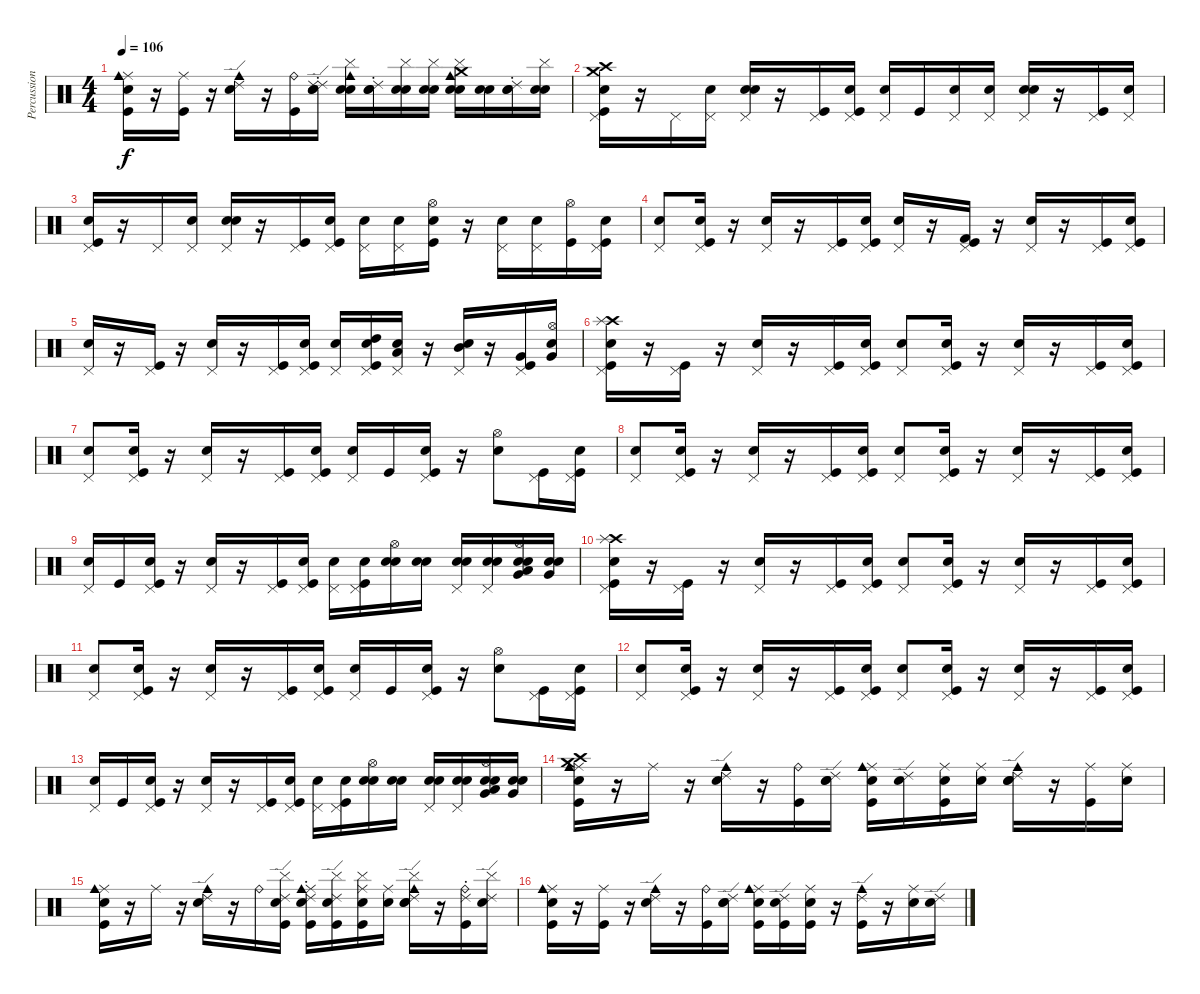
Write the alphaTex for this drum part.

\track ("Percussions (Zaac)" "Percussion") {instrument percussion}
\staff {score}
\articulation defaults
\ts (4 4)
\tempo 106
\clef neutral
\ks c
("Snare (hit)" "Kick (hit)" "Ride (middle)" "Cowbell medium (hit)").16{dy f} r.16 ("Kick (hit)" "Ride (middle)").16 r.16 ("Electric Snare (hit)" "Cowbell medium (hit)" "Ride (edge) 2").16 r.16 ("Kick (hit)" "Ride (bell)").16 ("Snare (hit)" "Ride (choke) 2" "Electric Snare (hit)" "Ride (edge) 2").16 ("Snare (hit)" "Cymbal (hit)" "Electric Snare (hit)" "Cowbell medium (hit)").16 ("Snare (hit)" "Ride (choke) 2" "Electric Snare (hit)").16 ("Snare (hit)" "Cymbal (hit)" "Electric Snare (hit)").16 ("Snare (hit)" "Cymbal (hit)" "Electric Snare (hit)").16 ("Snare (hit)" "Cymbal (hit)" "Electric Snare (hit)" "Cowbell medium (hit)" "Crash medium (hit)").16 ("Snare (hit)" "Electric Snare (hit)").16 ("Snare (hit)" "Ride (choke) 2" "Electric Snare (hit)").16 ("Snare (hit)" "Cymbal (hit)" "Electric Snare (hit)").16 |
("Snare (hit)" "Kick (hit)" "Pedal Hi-Hat (hit)" "Crash high (hit)" "Crash medium (hit)").16 r.16 "Pedal Hi-Hat (hit)".16 ("Snare (hit)" "Pedal Hi-Hat (hit)").16 ("Snare (hit)" "Electric Snare (hit)" "Pedal Hi-Hat (hit)").16 r.16 ("Kick (hit)" "Pedal Hi-Hat (hit)").16 ("Snare (hit)" "Kick (hit)" "Pedal Hi-Hat (hit)").16 ("Snare (hit)" "Pedal Hi-Hat (hit)").16 "Kick (hit)".16 ("Snare (hit)" "Pedal Hi-Hat (hit)").16 ("Snare (hit)" "Pedal Hi-Hat (hit)").16 ("Snare (hit)" "Electric Snare (hit)" "Pedal Hi-Hat (hit)").16 r.16 ("Kick (hit)" "Pedal Hi-Hat (hit)").16 ("Snare (hit)" "Pedal Hi-Hat (hit)").16 |
("Snare (hit)" "Kick (hit)" "Pedal Hi-Hat (hit)").16 r.16 "Pedal Hi-Hat (hit)".16 ("Snare (hit)" "Pedal Hi-Hat (hit)").16 ("Snare (hit)" "Electric Snare (hit)" "Pedal Hi-Hat (hit)").16 r.16 ("Kick (hit)" "Pedal Hi-Hat (hit)").16 ("Snare (hit)" "Kick (hit)" "Pedal Hi-Hat (hit)").16 ("Snare (hit)" "Pedal Hi-Hat (hit)").16 ("Snare (hit)" "Pedal Hi-Hat (hit)").16 ("Snare (hit)" "Kick (hit)" "Hi-Hat (open)").16 r.16 ("Electric Snare (hit)" "Pedal Hi-Hat (hit)").16 ("Snare (hit)" "Pedal Hi-Hat (hit)").16 ("Kick (hit)" "Hi-Hat (open)").16 ("Snare (hit)" "Kick (hit)" "Pedal Hi-Hat (hit)").16 |
("Snare (hit)" "Pedal Hi-Hat (hit)").8 ("Snare (hit)" "Kick (hit)" "Pedal Hi-Hat (hit)").16 r.16 ("Electric Snare (hit)" "Pedal Hi-Hat (hit)").16 r.16 ("Kick (hit)" "Pedal Hi-Hat (hit)").16 ("Snare (hit)" "Kick (hit)" "Pedal Hi-Hat (hit)").16 ("Snare (hit)" "Pedal Hi-Hat (hit)").16 r.16 ("Kick (hit)" "Kick (hit) 2" "Pedal Hi-Hat (hit)").16 r.16 ("Electric Snare (hit)" "Pedal Hi-Hat (hit)").16 r.16 ("Kick (hit)" "Pedal Hi-Hat (hit)").16 ("Snare (hit)" "Kick (hit)" "Pedal Hi-Hat (hit)").16 |
("Snare (hit)" "Pedal Hi-Hat (hit)").16 r.16 ("Kick (hit)" "Pedal Hi-Hat (hit)").16 r.16 ("Electric Snare (hit)" "Pedal Hi-Hat (hit)").16 r.16 ("Kick (hit)" "Pedal Hi-Hat (hit)").16 ("Snare (hit)" "Kick (hit)" "Pedal Hi-Hat (hit)").16 ("Snare (hit)" "Pedal Hi-Hat (hit)").16 ("Snare (hit)" "Kick (hit)" "Pedal Hi-Hat (hit)" "High Tom (hit)").16 ("Snare (hit)" "Pedal Hi-Hat (hit)" "Low Tom (hit)").16 r.16 ("Electric Snare (hit)" "Pedal Hi-Hat (hit)" "Mid Tom (hit)").16 r.16 ("Kick (hit)" "Very Low Tom (hit)" "Pedal Hi-Hat (hit)").16 ("Snare (hit)" "Very Low Tom (hit)" "Hi-Hat (open)").16 |
("Snare (hit)" "Kick (hit)" "Pedal Hi-Hat (hit)" "Crash high (hit)" "Splash (hit)").16 r.16 ("Kick (hit)" "Pedal Hi-Hat (hit)").16 r.16 ("Electric Snare (hit)" "Pedal Hi-Hat (hit)").16 r.16 ("Kick (hit)" "Pedal Hi-Hat (hit)").16 ("Snare (hit)" "Kick (hit)" "Pedal Hi-Hat (hit)").16 ("Snare (hit)" "Pedal Hi-Hat (hit)").8 ("Snare (hit)" "Kick (hit)" "Pedal Hi-Hat (hit)").16 r.16 ("Electric Snare (hit)" "Pedal Hi-Hat (hit)").16 r.16 ("Kick (hit)" "Pedal Hi-Hat (hit)").16 ("Snare (hit)" "Kick (hit)" "Pedal Hi-Hat (hit)").16 |
("Snare (hit)" "Pedal Hi-Hat (hit)").8 ("Snare (hit)" "Kick (hit)" "Pedal Hi-Hat (hit)").16 r.16 ("Electric Snare (hit)" "Pedal Hi-Hat (hit)").16 r.16 ("Kick (hit)" "Pedal Hi-Hat (hit)").16 ("Snare (hit)" "Kick (hit)" "Pedal Hi-Hat (hit)").16 ("Snare (hit)" "Pedal Hi-Hat (hit)").16 "Kick (hit)".16 ("Snare (hit)" "Kick (hit)" "Pedal Hi-Hat (hit)").16 r.16 ("Electric Snare (hit)" "Hi-Hat (open)").8 ("Kick (hit)" "Pedal Hi-Hat (hit)").16 ("Snare (hit)" "Kick (hit)" "Pedal Hi-Hat (hit)").16 |
("Snare (hit)" "Pedal Hi-Hat (hit)").8 ("Snare (hit)" "Kick (hit)" "Pedal Hi-Hat (hit)").16 r.16 ("Electric Snare (hit)" "Pedal Hi-Hat (hit)").16 r.16 ("Kick (hit)" "Pedal Hi-Hat (hit)").16 ("Snare (hit)" "Kick (hit)" "Pedal Hi-Hat (hit)").16 ("Snare (hit)" "Pedal Hi-Hat (hit)").8 ("Snare (hit)" "Kick (hit)" "Pedal Hi-Hat (hit)").16 r.16 ("Electric Snare (hit)" "Pedal Hi-Hat (hit)").16 r.16 ("Kick (hit)" "Pedal Hi-Hat (hit)").16 ("Snare (hit)" "Kick (hit)" "Pedal Hi-Hat (hit)").16 |
("Snare (hit)" "Pedal Hi-Hat (hit)").16 "Kick (hit)".16 ("Snare (hit)" "Kick (hit)" "Pedal Hi-Hat (hit)").16 r.16 ("Electric Snare (hit)" "Pedal Hi-Hat (hit)").16 r.16 ("Kick (hit)" "Pedal Hi-Hat (hit)").16 ("Snare (hit)" "Kick (hit)" "Pedal Hi-Hat (hit)").16 ("Snare (hit)" "Pedal Hi-Hat (hit)").16 ("Snare (hit)" "Kick (hit)" "Pedal Hi-Hat (hit)").16 ("Snare (hit)" "Electric Snare (hit)" "Hi-Hat (open)").16 ("Snare (hit)" "Electric Snare (hit)").16 ("Snare (hit)" "Electric Snare (hit)" "Pedal Hi-Hat (hit)").16 ("Snare (hit)" "Electric Snare (hit)" "Pedal Hi-Hat (hit)").16 ("Snare (hit)" "Electric Snare (hit)" "Very Low Tom (hit)" "Low Tom (hit)" "Hi-Hat (open)").16 ("Snare (hit)" "Electric Snare (hit)" "Very Low Tom (hit)").16 |
("Snare (hit)" "Kick (hit)" "Pedal Hi-Hat (hit)" "Crash high (hit)" "Splash (hit)").16 r.16 ("Kick (hit)" "Pedal Hi-Hat (hit)").16 r.16 ("Electric Snare (hit)" "Pedal Hi-Hat (hit)").16 r.16 ("Kick (hit)" "Pedal Hi-Hat (hit)").16 ("Snare (hit)" "Kick (hit)" "Pedal Hi-Hat (hit)").16 ("Snare (hit)" "Pedal Hi-Hat (hit)").8 ("Snare (hit)" "Kick (hit)" "Pedal Hi-Hat (hit)").16 r.16 ("Electric Snare (hit)" "Pedal Hi-Hat (hit)").16 r.16 ("Kick (hit)" "Pedal Hi-Hat (hit)").16 ("Snare (hit)" "Kick (hit)" "Pedal Hi-Hat (hit)").16 |
("Snare (hit)" "Pedal Hi-Hat (hit)").8 ("Snare (hit)" "Kick (hit)" "Pedal Hi-Hat (hit)").16 r.16 ("Electric Snare (hit)" "Pedal Hi-Hat (hit)").16 r.16 ("Kick (hit)" "Pedal Hi-Hat (hit)").16 ("Snare (hit)" "Kick (hit)" "Pedal Hi-Hat (hit)").16 ("Snare (hit)" "Pedal Hi-Hat (hit)").16 "Kick (hit)".16 ("Snare (hit)" "Kick (hit)" "Pedal Hi-Hat (hit)").16 r.16 ("Electric Snare (hit)" "Hi-Hat (open)").8 ("Kick (hit)" "Pedal Hi-Hat (hit)").16 ("Snare (hit)" "Kick (hit)" "Pedal Hi-Hat (hit)").16 |
("Snare (hit)" "Pedal Hi-Hat (hit)").8 ("Snare (hit)" "Kick (hit)" "Pedal Hi-Hat (hit)").16 r.16 ("Electric Snare (hit)" "Pedal Hi-Hat (hit)").16 r.16 ("Kick (hit)" "Pedal Hi-Hat (hit)").16 ("Snare (hit)" "Kick (hit)" "Pedal Hi-Hat (hit)").16 ("Snare (hit)" "Pedal Hi-Hat (hit)").8 ("Snare (hit)" "Kick (hit)" "Pedal Hi-Hat (hit)").16 r.16 ("Electric Snare (hit)" "Pedal Hi-Hat (hit)").16 r.16 ("Kick (hit)" "Pedal Hi-Hat (hit)").16 ("Snare (hit)" "Kick (hit)" "Pedal Hi-Hat (hit)").16 |
("Snare (hit)" "Pedal Hi-Hat (hit)").16 "Kick (hit)".16 ("Snare (hit)" "Kick (hit)" "Pedal Hi-Hat (hit)").16 r.16 ("Electric Snare (hit)" "Pedal Hi-Hat (hit)").16 r.16 ("Kick (hit)" "Pedal Hi-Hat (hit)").16 ("Snare (hit)" "Kick (hit)" "Pedal Hi-Hat (hit)").16 ("Snare (hit)" "Pedal Hi-Hat (hit)").16 ("Snare (hit)" "Kick (hit)" "Pedal Hi-Hat (hit)").16 ("Snare (hit)" "Electric Snare (hit)" "Hi-Hat (open)").16 ("Snare (hit)" "Electric Snare (hit)").16 ("Snare (hit)" "Electric Snare (hit)" "Pedal Hi-Hat (hit)").16 ("Snare (hit)" "Electric Snare (hit)" "Pedal Hi-Hat (hit)").16 ("Snare (hit)" "Electric Snare (hit)" "Very Low Tom (hit)" "Low Tom (hit)" "Hi-Hat (open)").16 ("Snare (hit)" "Electric Snare (hit)" "Very Low Tom (hit)").16 |
("Snare (hit)" "Kick (hit)" "Crash high (hit)" "Ride (middle)" "Cowbell medium (hit)" "Crash medium (hit)").16 r.16 "Ride (middle)".16 r.16 ("Electric Snare (hit)" "Cowbell medium (hit)" "Ride (edge) 2").16 r.16 ("Kick (hit)" "Ride (bell)").16 ("Snare (hit)" "Electric Snare (hit)" "Ride (edge) 2").16 ("Snare (hit)" "Kick (hit)" "Ride (middle)" "Cowbell medium (hit)").16 ("Snare (hit)" "Ride (edge) 2").16 ("Snare (hit)" "Kick (hit)" "Ride (middle)").16 ("Snare (hit)" "Ride (middle)").16 ("Snare (hit)" "Electric Snare (hit)" "Cowbell medium (hit)" "Ride (edge) 2").16 r.16 ("Kick (hit)" "Ride (middle)").16 ("Snare (hit)" "Ride (middle)").16 |
("Snare (hit)" "Kick (hit)" "Ride (middle)" "Cowbell medium (hit)").16 r.16 "Ride (middle)".16 r.16 ("Electric Snare (hit)" "Cowbell medium (hit)" "Ride (edge) 2").16 r.16 "Ride (bell)".16 ("Snare (hit)" "Cymbal (hit)" "Kick (hit)" "Ride (edge) 2").16 ("Snare (hit)" "Ride (choke) 2" "Kick (hit)" "Ride (middle)" "Cowbell medium (hit)").16 ("Snare (hit)" "Cymbal (hit)" "Kick (hit)" "Ride (edge) 2").16 ("Snare (hit)" "Cymbal (hit)" "Kick (hit)" "Ride (middle)").16 ("Snare (hit)" "Ride (middle)").16 ("Snare (hit)" "Cymbal (hit)" "Electric Snare (hit)" "Cowbell medium (hit)" "Ride (edge) 2").16 r.16 ("Ride (choke) 2" "Kick (hit)" "Ride (bell)").16 ("Snare (hit)" "Cymbal (hit)" "Ride (edge) 2").16 |
("Snare (hit)" "Kick (hit)" "Ride (middle)" "Cowbell medium (hit)").16 r.16 ("Kick (hit)" "Ride (middle)").16 r.16 ("Electric Snare (hit)" "Cowbell medium (hit)" "Ride (edge) 2").16 r.16 ("Kick (hit)" "Ride (bell)").16 ("Snare (hit)" "Electric Snare (hit)" "Ride (edge) 2").16 ("Snare (hit)" "Kick (hit)" "Ride (middle)" "Cowbell medium (hit)").16 ("Snare (hit)" "Kick (hit)" "Ride (edge) 2").16 ("Snare (hit)" "Kick (hit)" "Ride (middle)").16 r.16 ("Kick (hit)" "Cowbell medium (hit)" "Ride (edge) 2").16 r.16 ("Electric Snare (hit)" "Ride (middle)").16 ("Snare (hit)" "Ride (edge) 2").16
